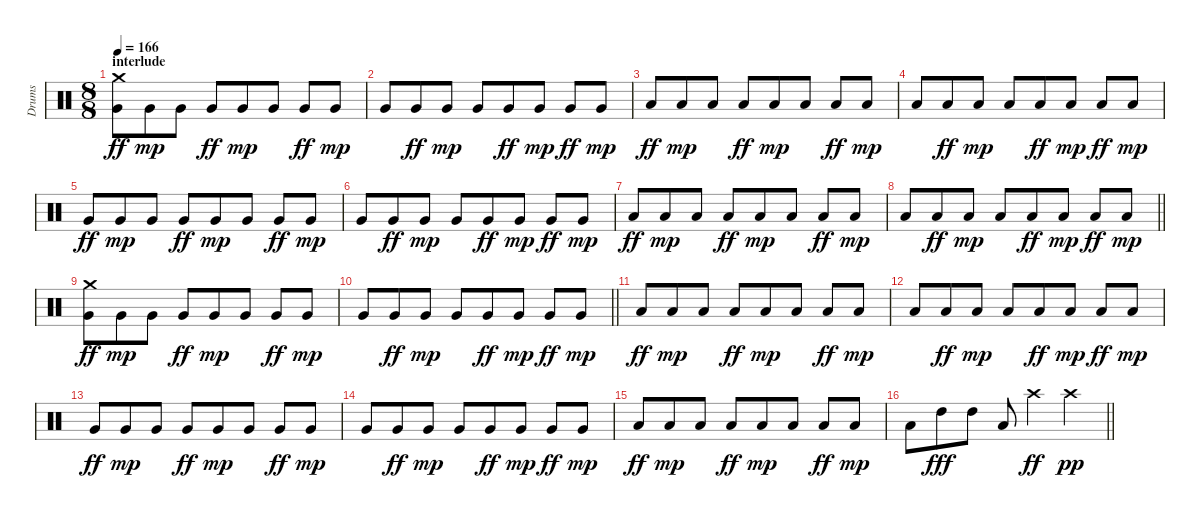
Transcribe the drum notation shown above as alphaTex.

\track ("Drums" "Drums") {instrument percussion}
\staff {score}
\articulation defaults
\ts (8 8)
\section ("" "interlude")
\tempo 166
\clef neutral
\ks c
("Crash medium (hit)" "Very Low Tom (hit)").8{dy ff} "Very Low Tom (hit)".8{dy mp} "Very Low Tom (hit)".8 "Very Low Tom (hit)".8{dy ff} "Very Low Tom (hit)".8{dy mp} "Very Low Tom (hit)".8 "Very Low Tom (hit)".8{dy ff} "Very Low Tom (hit)".8{dy mp} |
"Very Low Tom (hit)".8 "Very Low Tom (hit)".8{dy ff} "Very Low Tom (hit)".8{dy mp} "Very Low Tom (hit)".8 "Very Low Tom (hit)".8{dy ff} "Very Low Tom (hit)".8{dy mp} "Very Low Tom (hit)".8{dy ff} "Very Low Tom (hit)".8{dy mp} |
"Low Floor Tom (hit)".8{dy ff} "Low Floor Tom (hit)".8{dy mp} "Low Floor Tom (hit)".8 "Low Floor Tom (hit)".8{dy ff} "Low Floor Tom (hit)".8{dy mp} "Low Floor Tom (hit)".8 "Low Floor Tom (hit)".8{dy ff} "Low Floor Tom (hit)".8{dy mp} |
"Low Floor Tom (hit)".8 "Low Floor Tom (hit)".8{dy ff} "Low Floor Tom (hit)".8{dy mp} "Low Floor Tom (hit)".8 "Low Floor Tom (hit)".8{dy ff} "Low Floor Tom (hit)".8{dy mp} "Low Floor Tom (hit)".8{dy ff} "Low Floor Tom (hit)".8{dy mp} |
"Very Low Tom (hit)".8{dy ff} "Very Low Tom (hit)".8{dy mp} "Very Low Tom (hit)".8 "Very Low Tom (hit)".8{dy ff} "Very Low Tom (hit)".8{dy mp} "Very Low Tom (hit)".8 "Very Low Tom (hit)".8{dy ff} "Very Low Tom (hit)".8{dy mp} |
"Very Low Tom (hit)".8 "Very Low Tom (hit)".8{dy ff} "Very Low Tom (hit)".8{dy mp} "Very Low Tom (hit)".8 "Very Low Tom (hit)".8{dy ff} "Very Low Tom (hit)".8{dy mp} "Very Low Tom (hit)".8{dy ff} "Very Low Tom (hit)".8{dy mp} |
"Low Floor Tom (hit)".8{dy ff} "Low Floor Tom (hit)".8{dy mp} "Low Floor Tom (hit)".8 "Low Floor Tom (hit)".8{dy ff} "Low Floor Tom (hit)".8{dy mp} "Low Floor Tom (hit)".8 "Low Floor Tom (hit)".8{dy ff} "Low Floor Tom (hit)".8{dy mp} |
\barLineRight lightlight "Low Floor Tom (hit)".8 "Low Floor Tom (hit)".8{dy ff} "Low Floor Tom (hit)".8{dy mp} "Low Floor Tom (hit)".8 "Low Floor Tom (hit)".8{dy ff} "Low Floor Tom (hit)".8{dy mp} "Low Floor Tom (hit)".8{dy ff} "Low Floor Tom (hit)".8{dy mp}
|
\section ("" "")
("Crash medium (hit)" "Very Low Tom (hit)").8{dy ff} "Very Low Tom (hit)".8{dy mp} "Very Low Tom (hit)".8 "Very Low Tom (hit)".8{dy ff} "Very Low Tom (hit)".8{dy mp} "Very Low Tom (hit)".8 "Very Low Tom (hit)".8{dy ff} "Very Low Tom (hit)".8{dy mp} |
\barLineRight lightlight "Very Low Tom (hit)".8 "Very Low Tom (hit)".8{dy ff} "Very Low Tom (hit)".8{dy mp} "Very Low Tom (hit)".8 "Very Low Tom (hit)".8{dy ff} "Very Low Tom (hit)".8{dy mp} "Very Low Tom (hit)".8{dy ff} "Very Low Tom (hit)".8{dy mp}
|
"Low Floor Tom (hit)".8{dy ff} "Low Floor Tom (hit)".8{dy mp} "Low Floor Tom (hit)".8 "Low Floor Tom (hit)".8{dy ff} "Low Floor Tom (hit)".8{dy mp} "Low Floor Tom (hit)".8 "Low Floor Tom (hit)".8{dy ff} "Low Floor Tom (hit)".8{dy mp} |
"Low Floor Tom (hit)".8 "Low Floor Tom (hit)".8{dy ff} "Low Floor Tom (hit)".8{dy mp} "Low Floor Tom (hit)".8 "Low Floor Tom (hit)".8{dy ff} "Low Floor Tom (hit)".8{dy mp} "Low Floor Tom (hit)".8{dy ff} "Low Floor Tom (hit)".8{dy mp} |
"Very Low Tom (hit)".8{dy ff} "Very Low Tom (hit)".8{dy mp} "Very Low Tom (hit)".8 "Very Low Tom (hit)".8{dy ff} "Very Low Tom (hit)".8{dy mp} "Very Low Tom (hit)".8 "Very Low Tom (hit)".8{dy ff} "Very Low Tom (hit)".8{dy mp} |
"Very Low Tom (hit)".8 "Very Low Tom (hit)".8{dy ff} "Very Low Tom (hit)".8{dy mp} "Very Low Tom (hit)".8 "Very Low Tom (hit)".8{dy ff} "Very Low Tom (hit)".8{dy mp} "Very Low Tom (hit)".8{dy ff} "Very Low Tom (hit)".8{dy mp} |
"Low Floor Tom (hit)".8{dy ff} "Low Floor Tom (hit)".8{dy mp} "Low Floor Tom (hit)".8 "Low Floor Tom (hit)".8{dy ff} "Low Floor Tom (hit)".8{dy mp} "Low Floor Tom (hit)".8 "Low Floor Tom (hit)".8{dy ff} "Low Floor Tom (hit)".8{dy mp} |
\barLineRight lightlight "Low Floor Tom (hit)".8 "High Tom (hit)".8{dy fff} "High Tom (hit)".8 "Low Tom (hit)".8 "Crash high (hit)".4{dy ff} "Crash high (hit)".4{dy pp}
